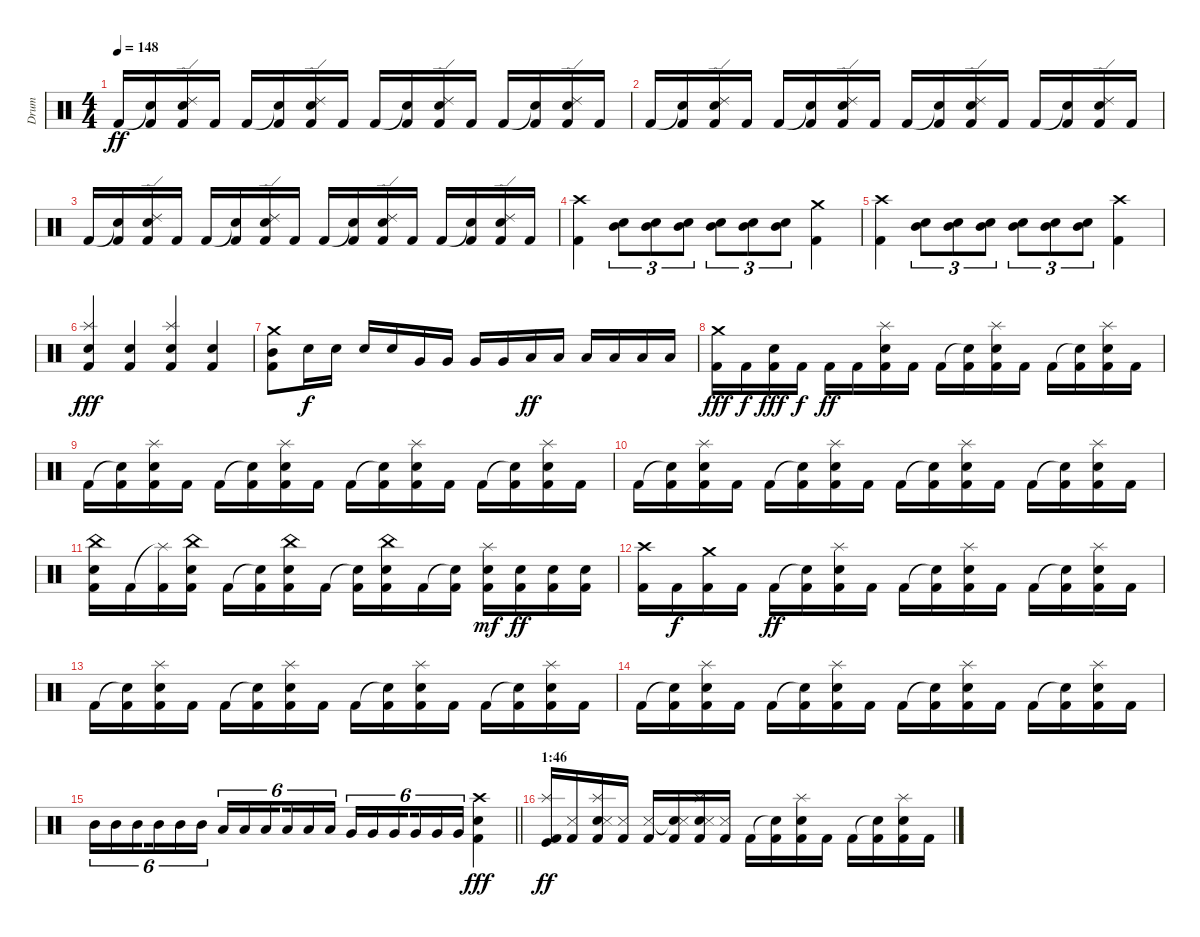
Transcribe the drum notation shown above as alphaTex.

\track ("Drum" "Drum") {instrument percussion}
\staff {score}
\articulation defaults
\ts (4 4)
\tempo 148
\clef neutral
\ks c "Kick (hit) 2".16{dy ff}
("Snare (hit)"{t} "Kick (hit) 2").16 ("Ride (edge) 2" "Snare (hit) 2" "Kick (hit) 2").16 "Kick (hit) 2".16 "Kick (hit) 2".16 ("Snare (hit)"{t} "Kick (hit) 2").16 ("Ride (edge) 2" "Snare (hit) 2" "Kick (hit) 2").16 "Kick (hit) 2".16 "Kick (hit) 2".16 ("Snare (hit)"{t} "Kick (hit) 2").16 ("Ride (edge) 2" "Snare (hit) 2" "Kick (hit) 2").16 "Kick (hit) 2".16 "Kick (hit) 2".16 ("Snare (hit)"{t} "Kick (hit) 2").16 ("Ride (edge) 2" "Snare (hit) 2" "Kick (hit) 2").16 "Kick (hit) 2".16 |
"Kick (hit) 2".16 ("Snare (hit)"{t} "Kick (hit) 2").16 ("Ride (edge) 2" "Snare (hit) 2" "Kick (hit) 2").16 "Kick (hit) 2".16 "Kick (hit) 2".16 ("Snare (hit)"{t} "Kick (hit) 2").16 ("Ride (edge) 2" "Snare (hit) 2" "Kick (hit) 2").16 "Kick (hit) 2".16 "Kick (hit) 2".16 ("Snare (hit)"{t} "Kick (hit) 2").16 ("Ride (edge) 2" "Snare (hit) 2" "Kick (hit) 2").16 "Kick (hit) 2".16 "Kick (hit) 2".16 ("Snare (hit)"{t} "Kick (hit) 2").16 ("Ride (edge) 2" "Snare (hit) 2" "Kick (hit) 2").16 "Kick (hit) 2".16 |
"Kick (hit) 2".16 ("Snare (hit)"{t} "Kick (hit) 2").16 ("Ride (edge) 2" "Snare (hit) 2" "Kick (hit) 2").16 "Kick (hit) 2".16 "Kick (hit) 2".16 ("Snare (hit)"{t} "Kick (hit) 2").16 ("Ride (edge) 2" "Snare (hit) 2" "Kick (hit) 2").16 "Kick (hit) 2".16 "Kick (hit) 2".16 ("Snare (hit)"{t} "Kick (hit) 2").16 ("Ride (edge) 2" "Snare (hit) 2" "Kick (hit) 2").16 "Kick (hit) 2".16 "Kick (hit) 2".16 ("Snare (hit)"{t} "Kick (hit) 2").16 ("Ride (edge) 2" "Snare (hit) 2" "Kick (hit) 2").16 "Kick (hit) 2".16 |
("Crash high (hit)" "Kick (hit) 2").4 ("Mid Tom (hit)" "Snare (hit) 2").8{tu (3 2)} ("Mid Tom (hit)" "Snare (hit) 2").8{tu (3 2)} ("Mid Tom (hit)" "Snare (hit) 2").8{tu (3 2)} ("Mid Tom (hit)" "Snare (hit) 2").8{tu (3 2)} ("Mid Tom (hit)" "Snare (hit) 2").8{tu (3 2)} ("Mid Tom (hit)" "Snare (hit) 2").8{tu (3 2)} ("Crash medium (hit)" "Kick (hit) 2").4 |
("Crash high (hit)" "Kick (hit) 2").4 ("Mid Tom (hit)" "Snare (hit) 2").8{tu (3 2)} ("Mid Tom (hit)" "Snare (hit) 2").8{tu (3 2)} ("Mid Tom (hit)" "Snare (hit) 2").8{tu (3 2)} ("Mid Tom (hit)" "Snare (hit) 2").8{tu (3 2)} ("Mid Tom (hit)" "Snare (hit) 2").8{tu (3 2)} ("Mid Tom (hit)" "Snare (hit) 2").8{tu (3 2)} ("Crash high (hit)" "Kick (hit) 2").4 |
("Splash (hit)" "Electric Snare (hit)" "Kick (hit) 2").4{dy fff} ("Electric Snare (hit)" "Kick (hit) 2").4 ("Splash (hit)" "Electric Snare (hit)" "Kick (hit) 2").4 ("Electric Snare (hit)" "Kick (hit) 2").4 |
("Crash medium (hit)" "Mid Tom (hit)" "Kick (hit) 2").8 "Snare (hit) 2".16{dy f} "Snare (hit) 2".16 "Snare (hit) 2".16 "Snare (hit) 2".16 "Very Low Tom (hit)".16 "Very Low Tom (hit)".16 "Very Low Tom (hit)".16 "Very Low Tom (hit)".16 "Low Floor Tom (hit)".16{dy ff} "Low Floor Tom (hit)".16 "Low Floor Tom (hit)".16 "Low Floor Tom (hit)".16 "Low Floor Tom (hit)".16 "Low Floor Tom (hit)".16 |
("Crash medium (hit)" "Kick (hit) 2").16{dy fff} "Kick (hit) 2".16{dy f} ("Snare (hit) 2" "Kick (hit) 2").16{dy fff} "Kick (hit) 2".16{dy f} "Kick (hit) 2".16{dy ff} "Kick (hit) 2".16 ("Splash (hit)" "Snare (hit) 2" "Kick (hit) 2").16 "Kick (hit) 2".16 "Kick (hit) 2".16 ("Snare (hit)"{t} "Kick (hit) 2").16 ("Splash (hit)" "Snare (hit) 2" "Kick (hit) 2").16 "Kick (hit) 2".16 "Kick (hit) 2".16 ("Snare (hit)"{t} "Kick (hit) 2").16 ("Splash (hit)" "Snare (hit) 2" "Kick (hit) 2").16 "Kick (hit) 2".16 |
"Kick (hit) 2".16 ("Snare (hit)"{t} "Kick (hit) 2").16 ("Splash (hit)" "Snare (hit) 2" "Kick (hit) 2").16 "Kick (hit) 2".16 "Kick (hit) 2".16 ("Snare (hit)"{t} "Kick (hit) 2").16 ("Splash (hit)" "Snare (hit) 2" "Kick (hit) 2").16 "Kick (hit) 2".16 "Kick (hit) 2".16 ("Snare (hit)"{t} "Kick (hit) 2").16 ("Splash (hit)" "Snare (hit) 2" "Kick (hit) 2").16 "Kick (hit) 2".16 "Kick (hit) 2".16 ("Snare (hit)"{t} "Kick (hit) 2").16 ("Splash (hit)" "Snare (hit) 2" "Kick (hit) 2").16 "Kick (hit) 2".16 |
"Kick (hit) 2".16 ("Snare (hit)"{t} "Kick (hit) 2").16 ("Splash (hit)" "Snare (hit) 2" "Kick (hit) 2").16 "Kick (hit) 2".16 "Kick (hit) 2".16 ("Snare (hit)"{t} "Kick (hit) 2").16 ("Splash (hit)" "Snare (hit) 2" "Kick (hit) 2").16 "Kick (hit) 2".16 "Kick (hit) 2".16 ("Snare (hit)"{t} "Kick (hit) 2").16 ("Splash (hit)" "Snare (hit) 2" "Kick (hit) 2").16 "Kick (hit) 2".16 "Kick (hit) 2".16 ("Snare (hit)"{t} "Kick (hit) 2").16 ("Splash (hit)" "Snare (hit) 2" "Kick (hit) 2").16 "Kick (hit) 2".16 |
("China (hit)" "Snare (hit) 2" "Kick (hit) 2").16 "Kick (hit) 2".16 ("Splash (hit)"{t} "Kick (hit) 2").16 ("China (hit)" "Snare (hit) 2" "Kick (hit) 2").16 "Kick (hit) 2".16 ("Snare (hit)"{t} "Kick (hit) 2").16 ("China (hit)" "Snare (hit) 2" "Kick (hit) 2").16 "Kick (hit) 2".16 ("Snare (hit)"{t} "Kick (hit) 2").16 ("China (hit)" "Snare (hit) 2" "Kick (hit) 2").16 "Kick (hit) 2".16 ("Snare (hit)"{t} "Kick (hit) 2").16 ("Splash (hit)" "Snare (hit) 2" "Kick (hit) 2").16{dy mf} ("Snare (hit) 2" "Kick (hit) 2").16{dy ff} ("Snare (hit) 2" "Kick (hit) 2").16 ("Snare (hit) 2" "Kick (hit) 2").16 |
("Crash high (hit)" "Kick (hit) 2").16 "Kick (hit) 2".16{dy f} ("Crash medium (hit)" "Kick (hit) 2").16 "Kick (hit) 2".16 "Kick (hit) 2".16{dy ff} ("Snare (hit)"{t} "Kick (hit) 2").16 ("Splash (hit)" "Snare (hit) 2" "Kick (hit) 2").16 "Kick (hit) 2".16 "Kick (hit) 2".16 ("Snare (hit)"{t} "Kick (hit) 2").16 ("Splash (hit)" "Snare (hit) 2" "Kick (hit) 2").16 "Kick (hit) 2".16 "Kick (hit) 2".16 ("Snare (hit)"{t} "Kick (hit) 2").16 ("Splash (hit)" "Snare (hit) 2" "Kick (hit) 2").16 "Kick (hit) 2".16 |
"Kick (hit) 2".16 ("Snare (hit)"{t} "Kick (hit) 2").16 ("Splash (hit)" "Snare (hit) 2" "Kick (hit) 2").16 "Kick (hit) 2".16 "Kick (hit) 2".16 ("Snare (hit)"{t} "Kick (hit) 2").16 ("Splash (hit)" "Snare (hit) 2" "Kick (hit) 2").16 "Kick (hit) 2".16 "Kick (hit) 2".16 ("Snare (hit)"{t} "Kick (hit) 2").16 ("Splash (hit)" "Snare (hit) 2" "Kick (hit) 2").16 "Kick (hit) 2".16 "Kick (hit) 2".16 ("Snare (hit)"{t} "Kick (hit) 2").16 ("Splash (hit)" "Snare (hit) 2" "Kick (hit) 2").16 "Kick (hit) 2".16 |
"Kick (hit) 2".16 ("Snare (hit)"{t} "Kick (hit) 2").16 ("Splash (hit)" "Snare (hit) 2" "Kick (hit) 2").16 "Kick (hit) 2".16 "Kick (hit) 2".16 ("Snare (hit)"{t} "Kick (hit) 2").16 ("Splash (hit)" "Snare (hit) 2" "Kick (hit) 2").16 "Kick (hit) 2".16 "Kick (hit) 2".16 ("Snare (hit)"{t} "Kick (hit) 2").16 ("Splash (hit)" "Snare (hit) 2" "Kick (hit) 2").16 "Kick (hit) 2".16 "Kick (hit) 2".16 ("Snare (hit)"{t} "Kick (hit) 2").16 ("Splash (hit)" "Snare (hit) 2" "Kick (hit) 2").16 "Kick (hit) 2".16 |
\barLineRight lightlight "Mid Tom (hit)".16{tu (6 4)} "Mid Tom (hit)".16{tu (6 4)} "Mid Tom (hit)".16{tu (6 4) beam splitsecondary} "Mid Tom (hit)".16{tu (6 4)} "Mid Tom (hit)".16{tu (6 4)} "Mid Tom (hit)".16{tu (6 4)} "Low Tom (hit)".16{tu (6 4)} "Low Tom (hit)".16{tu (6 4)} "Low Tom (hit)".16{tu (6 4) beam splitsecondary} "Low Tom (hit)".16{tu (6 4)} "Low Tom (hit)".16{tu (6 4)} "Low Tom (hit)".16{tu (6 4)} "Very Low Tom (hit)".16{tu (6 4)} "Very Low Tom (hit)".16{tu (6 4)} "Very Low Tom (hit)".16{tu (6 4) beam splitsecondary} "Very Low Tom (hit)".16{tu (6 4)} "Very Low Tom (hit)".16{tu (6 4)} "Very Low Tom (hit)".16{tu (6 4)}
("Crash high (hit)" "Snare (hit) 2" "Kick (hit) 2").4{dy fff} |
\section ("" "1:46")
("Splash (hit)" "Kick (hit)" "Kick (hit) 2").16{dy ff} ("Metronome (hit)" "Kick (hit) 2").16 ("Splash (hit)" "Snare (hit) 2" "Metronome (hit)" "Kick (hit) 2").16 ("Metronome (hit)" "Kick (hit) 2").16 ("Metronome (hit)" "Kick (hit) 2").16 ("Snare (hit)"{t} "Metronome (hit)" "Kick (hit) 2").16 ("Splash (hit)" "Snare (hit) 2" "Metronome (hit)" "Kick (hit) 2").16 ("Metronome (hit)" "Kick (hit) 2").16 "Kick (hit) 2".16 ("Snare (hit)"{t} "Kick (hit) 2").16 ("Splash (hit)" "Snare (hit) 2" "Kick (hit) 2").16 "Kick (hit) 2".16 "Kick (hit) 2".16 ("Snare (hit)"{t} "Kick (hit) 2").16 ("Splash (hit)" "Snare (hit) 2" "Kick (hit) 2").16 "Kick (hit) 2".16
